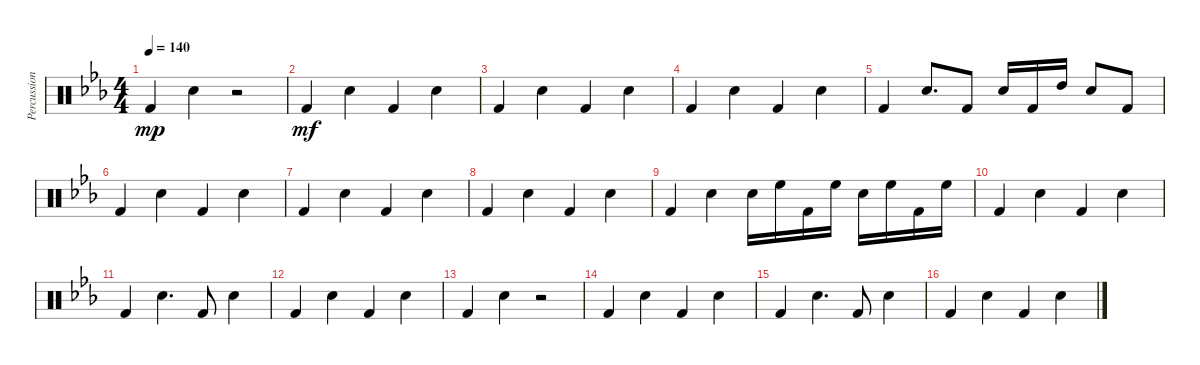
\track ("Percussions" "Percussion") {instrument percussion}
\staff {score}
\articulation defaults
\ts (4 4)
\tempo 140
\clef neutral
\ks cminor "Kick (hit) 2".4{dy mp} "Snare (hit) 2".4
r.2 |
"Kick (hit) 2".4{dy mf} "Snare (hit) 2".4 "Kick (hit) 2".4 "Snare (hit) 2".4 |
"Kick (hit) 2".4 "Snare (hit) 2".4 "Kick (hit) 2".4 "Snare (hit) 2".4 |
"Kick (hit) 2".4 "Snare (hit) 2".4 "Kick (hit) 2".4 "Snare (hit) 2".4 |
"Kick (hit) 2".4 "Snare (hit) 2".8{d} "Kick (hit) 2".8 "Snare (hit) 2".16 "Kick (hit) 2".16 "High Tom (hit)".16 "Snare (hit) 2".8 "Kick (hit) 2".8 |
"Kick (hit) 2".4 "Snare (hit) 2".4 "Kick (hit) 2".4 "Snare (hit) 2".4 |
"Kick (hit) 2".4 "Snare (hit) 2".4 "Kick (hit) 2".4 "Snare (hit) 2".4 |
"Kick (hit) 2".4 "Snare (hit) 2".4 "Kick (hit) 2".4 "Snare (hit) 2".4 |
"Kick (hit) 2".4 "Snare (hit) 2".4 "Snare (hit) 2".16 "High Floor Tom (hit)".16 "Kick (hit) 2".16 "High Floor Tom (hit)".16 "Snare (hit) 2".16 "High Floor Tom (hit)".16 "Kick (hit) 2".16 "High Floor Tom (hit)".16 |
"Kick (hit) 2".4 "Snare (hit) 2".4 "Kick (hit) 2".4 "Snare (hit) 2".4 |
"Kick (hit) 2".4 "Snare (hit) 2".4{d} "Kick (hit) 2".8 "Snare (hit) 2".4 |
"Kick (hit) 2".4 "Snare (hit) 2".4 "Kick (hit) 2".4 "Snare (hit) 2".4 |
"Kick (hit) 2".4 "Snare (hit) 2".4 r.2 |
"Kick (hit) 2".4 "Snare (hit) 2".4 "Kick (hit) 2".4 "Snare (hit) 2".4 |
"Kick (hit) 2".4 "Snare (hit) 2".4{d} "Kick (hit) 2".8 "Snare (hit) 2".4 |
"Kick (hit) 2".4 "Snare (hit) 2".4 "Kick (hit) 2".4 "Snare (hit) 2".4
